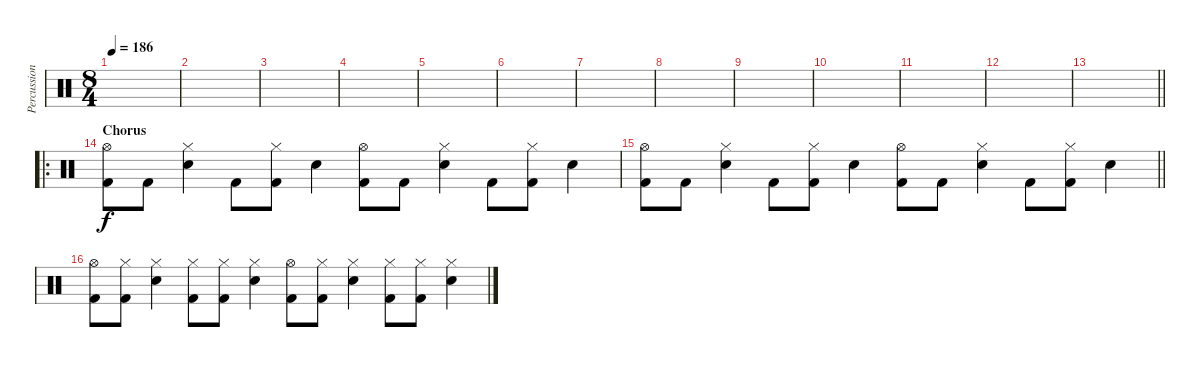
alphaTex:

\track ("Percussion" "Percussion") {instrument percussion}
\staff {score}
\articulation defaults
\ts (8 4)
\tempo 186
\clef neutral
\ks c
|
|
|
|
|
|
|
|
|
|
|
|
\barLineRight lightlight
|
\ro
\section ("" "Chorus")
("Hi-Hat (open)" "Kick (hit) 2").8 "Kick (hit) 2".8 ("Hi-Hat (closed)" "Electric Snare (hit)").4 "Kick (hit) 2".8 ("Hi-Hat (closed)" "Kick (hit) 2").8 "Electric Snare (hit)".4 ("Hi-Hat (open)" "Kick (hit) 2").8 "Kick (hit) 2".8 ("Hi-Hat (closed)" "Electric Snare (hit)").4 "Kick (hit) 2".8 ("Hi-Hat (closed)" "Kick (hit) 2").8 "Electric Snare (hit)".4 |
\barLineRight lightlight
("Hi-Hat (open)" "Kick (hit) 2").8 "Kick (hit) 2".8 ("Hi-Hat (closed)" "Electric Snare (hit)").4 "Kick (hit) 2".8 ("Hi-Hat (closed)" "Kick (hit) 2").8 "Electric Snare (hit)".4 ("Hi-Hat (open)" "Kick (hit) 2").8 "Kick (hit) 2".8 ("Hi-Hat (closed)" "Electric Snare (hit)").4 "Kick (hit) 2".8 ("Hi-Hat (closed)" "Kick (hit) 2").8 "Electric Snare (hit)".4 |
("Hi-Hat (open)" "Kick (hit) 2").8 ("Hi-Hat (closed)" "Kick (hit) 2").8 ("Hi-Hat (closed)" "Electric Snare (hit)").4 ("Hi-Hat (closed)" "Kick (hit) 2").8 ("Hi-Hat (closed)" "Kick (hit) 2").8 ("Hi-Hat (closed)" "Electric Snare (hit)").4 ("Hi-Hat (open)" "Kick (hit) 2").8 ("Hi-Hat (closed)" "Kick (hit) 2").8 ("Hi-Hat (closed)" "Electric Snare (hit)").4 ("Hi-Hat (closed)" "Kick (hit) 2").8 ("Hi-Hat (closed)" "Kick (hit) 2").8 ("Hi-Hat (closed)" "Electric Snare (hit)").4
